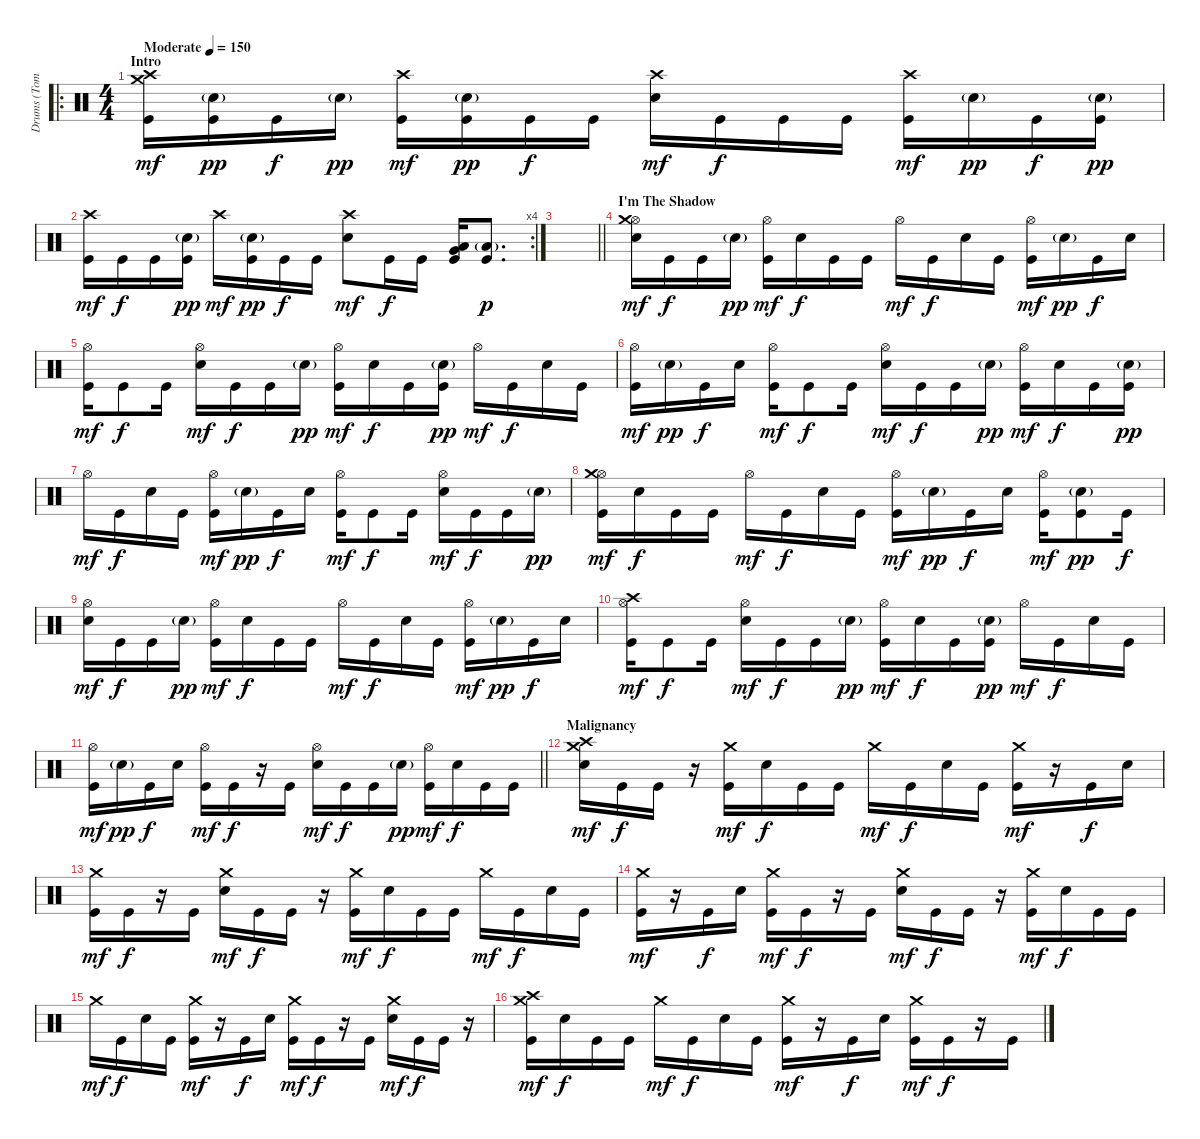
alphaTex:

\track ("Drums (Tomas Haake)" "Drums (Tom") {instrument percussion}
\staff {score}
\articulation defaults
\ro
\ts (4 4)
\section ("" "Intro")
\tempo (150 "Moderate")
\clef neutral
\ks c
("Crash high (hit)" "Crash medium (hit)" "Kick (hit)").16{dy mf} ("Electric Snare (hit)"{g} "Kick (hit)").16{dy pp} "Kick (hit)".16{dy f} "Electric Snare (hit)"{g}.16{dy pp} ("Crash high (hit)" "Kick (hit)").16{dy mf} ("Electric Snare (hit)"{g} "Kick (hit)").16{dy pp} "Kick (hit)".16{dy f} "Kick (hit)".16 ("Crash high (hit)" "Electric Snare (hit)").16{dy mf} "Kick (hit)".16{dy f} "Kick (hit)".16 "Kick (hit)".16 ("Crash high (hit)" "Kick (hit)").16{dy mf} "Electric Snare (hit)"{g}.16{dy pp} "Kick (hit)".16{dy f} ("Electric Snare (hit)"{g} "Kick (hit)").16{dy pp} |
\rc 4
("Crash high (hit)" "Kick (hit)").16{dy mf} "Kick (hit)".16{dy f} "Kick (hit)".16 ("Electric Snare (hit)"{g} "Kick (hit)").16{dy pp} "Crash high (hit)".16{dy mf} ("Electric Snare (hit)"{g} "Kick (hit)").16{dy pp} "Kick (hit)".16{dy f} "Kick (hit)".16 ("Crash high (hit)" "Electric Snare (hit)").8{dy mf} "Kick (hit)".16{dy f} "Kick (hit)".16 ("Very Low Tom (hit)" "Low Floor Tom (hit)" "Kick (hit)").16 ("Low Floor Tom (hit)"{g} "Kick (hit)").8{d dy p} |
\barLineRight lightlight
|
\section ("" "I'm The Shadow")
("Hi-Hat (open)" "Crash medium (hit)" "Electric Snare (hit)").16{dy mf} "Kick (hit)".16{dy f} "Kick (hit)".16 "Electric Snare (hit)"{g}.16{dy pp} ("Hi-Hat (open)" "Kick (hit)").16{dy mf} "Electric Snare (hit)".16{dy f} "Kick (hit)".16 "Kick (hit)".16 "Hi-Hat (open)".16{dy mf} "Kick (hit)".16{dy f} "Electric Snare (hit)".16 "Kick (hit)".16 ("Hi-Hat (open)" "Kick (hit)").16{dy mf} "Electric Snare (hit)"{g}.16{dy pp} "Kick (hit)".16{dy f} "Electric Snare (hit)".16 |
("Hi-Hat (open)" "Kick (hit)").16{dy mf} "Kick (hit)".8{dy f} "Kick (hit)".16 ("Hi-Hat (open)" "Electric Snare (hit)").16{dy mf} "Kick (hit)".16{dy f} "Kick (hit)".16 "Electric Snare (hit)"{g}.16{dy pp} ("Hi-Hat (open)" "Kick (hit)").16{dy mf} "Electric Snare (hit)".16{dy f} "Kick (hit)".16 ("Electric Snare (hit)"{g} "Kick (hit)").16{dy pp} "Hi-Hat (open)".16{dy mf} "Kick (hit)".16{dy f} "Electric Snare (hit)".16 "Kick (hit)".16 |
("Hi-Hat (open)" "Kick (hit)").16{dy mf} "Electric Snare (hit)"{g}.16{dy pp} "Kick (hit)".16{dy f} "Electric Snare (hit)".16 ("Hi-Hat (open)" "Kick (hit)").16{dy mf} "Kick (hit)".8{dy f} "Kick (hit)".16 ("Hi-Hat (open)" "Electric Snare (hit)").16{dy mf} "Kick (hit)".16{dy f} "Kick (hit)".16 "Electric Snare (hit)"{g}.16{dy pp} ("Hi-Hat (open)" "Kick (hit)").16{dy mf} "Electric Snare (hit)".16{dy f} "Kick (hit)".16 ("Electric Snare (hit)"{g} "Kick (hit)").16{dy pp} |
"Hi-Hat (open)".16{dy mf} "Kick (hit)".16{dy f} "Electric Snare (hit)".16 "Kick (hit)".16 ("Hi-Hat (open)" "Kick (hit)").16{dy mf} "Electric Snare (hit)"{g}.16{dy pp} "Kick (hit)".16{dy f} "Electric Snare (hit)".16 ("Hi-Hat (open)" "Kick (hit)").16{dy mf} "Kick (hit)".8{dy f} "Kick (hit)".16 ("Hi-Hat (open)" "Electric Snare (hit)").16{dy mf} "Kick (hit)".16{dy f} "Kick (hit)".16 "Electric Snare (hit)"{g}.16{dy pp} |
("Hi-Hat (open)" "Crash medium (hit)" "Kick (hit)").16{dy mf} "Electric Snare (hit)".16{dy f} "Kick (hit)".16 "Kick (hit)".16 "Hi-Hat (open)".16{dy mf} "Kick (hit)".16{dy f} "Electric Snare (hit)".16 "Kick (hit)".16 ("Hi-Hat (open)" "Kick (hit)").16{dy mf} "Electric Snare (hit)"{g}.16{dy pp} "Kick (hit)".16{dy f} "Electric Snare (hit)".16 ("Hi-Hat (open)" "Kick (hit)").16{dy mf} ("Electric Snare (hit)"{g} "Kick (hit)").8{dy pp} "Kick (hit)".16{dy f} |
("Hi-Hat (open)" "Electric Snare (hit)").16{dy mf} "Kick (hit)".16{dy f} "Kick (hit)".16 "Electric Snare (hit)"{g}.16{dy pp} ("Hi-Hat (open)" "Kick (hit)").16{dy mf} "Electric Snare (hit)".16{dy f} "Kick (hit)".16 "Kick (hit)".16 "Hi-Hat (open)".16{dy mf} "Kick (hit)".16{dy f} "Electric Snare (hit)".16 "Kick (hit)".16 ("Hi-Hat (open)" "Kick (hit)").16{dy mf} "Electric Snare (hit)"{g}.16{dy pp} "Kick (hit)".16{dy f} "Electric Snare (hit)".16 |
("Hi-Hat (open)" "Crash high (hit)" "Kick (hit)").16{dy mf} "Kick (hit)".8{dy f} "Kick (hit)".16 ("Hi-Hat (open)" "Electric Snare (hit)").16{dy mf} "Kick (hit)".16{dy f} "Kick (hit)".16 "Electric Snare (hit)"{g}.16{dy pp} ("Hi-Hat (open)" "Kick (hit)").16{dy mf} "Electric Snare (hit)".16{dy f} "Kick (hit)".16 ("Electric Snare (hit)"{g} "Kick (hit)").16{dy pp} "Hi-Hat (open)".16{dy mf} "Kick (hit)".16{dy f} "Electric Snare (hit)".16 "Kick (hit)".16 |
\barLineRight lightlight
("Hi-Hat (open)" "Kick (hit)").16{dy mf} "Electric Snare (hit)"{g}.16{dy pp} "Kick (hit)".16{dy f} "Electric Snare (hit)".16 ("Hi-Hat (open)" "Kick (hit)").16{dy mf} "Kick (hit)".16{dy f} r.16 "Kick (hit)".16 ("Hi-Hat (open)" "Electric Snare (hit)").16{dy mf} "Kick (hit)".16{dy f} "Kick (hit)".16 "Electric Snare (hit)"{g}.16{dy pp} ("Hi-Hat (open)" "Kick (hit)").16{dy mf} "Electric Snare (hit)".16{dy f} "Kick (hit)".16 "Kick (hit)".16 |
\section ("" "Malignancy")
("Crash medium (hit)" "Crash high (hit)" "Electric Snare (hit)").16{dy mf} "Kick (hit)".16{dy f} "Kick (hit)".16 r.16 ("Crash medium (hit)" "Kick (hit)").16{dy mf} "Electric Snare (hit)".16{dy f} "Kick (hit)".16 "Kick (hit)".16 "Crash medium (hit)".16{dy mf} "Kick (hit)".16{dy f} "Electric Snare (hit)".16 "Kick (hit)".16 ("Crash medium (hit)" "Kick (hit)").16{dy mf} r.16 "Kick (hit)".16{dy f} "Electric Snare (hit)".16 |
("Crash medium (hit)" "Kick (hit)").16{dy mf} "Kick (hit)".16{dy f} r.16 "Kick (hit)".16 ("Crash medium (hit)" "Electric Snare (hit)").16{dy mf} "Kick (hit)".16{dy f} "Kick (hit)".16 r.16 ("Crash medium (hit)" "Kick (hit)").16{dy mf} "Electric Snare (hit)".16{dy f} "Kick (hit)".16 "Kick (hit)".16 "Crash medium (hit)".16{dy mf} "Kick (hit)".16{dy f} "Electric Snare (hit)".16 "Kick (hit)".16 |
("Crash medium (hit)" "Kick (hit)").16{dy mf} r.16 "Kick (hit)".16{dy f} "Electric Snare (hit)".16 ("Crash medium (hit)" "Kick (hit)").16{dy mf} "Kick (hit)".16{dy f} r.16 "Kick (hit)".16 ("Crash medium (hit)" "Electric Snare (hit)").16{dy mf} "Kick (hit)".16{dy f} "Kick (hit)".16 r.16 ("Crash medium (hit)" "Kick (hit)").16{dy mf} "Electric Snare (hit)".16{dy f} "Kick (hit)".16 "Kick (hit)".16 |
"Crash medium (hit)".16{dy mf} "Kick (hit)".16{dy f} "Electric Snare (hit)".16 "Kick (hit)".16 ("Crash medium (hit)" "Kick (hit)").16{dy mf} r.16 "Kick (hit)".16{dy f} "Electric Snare (hit)".16 ("Crash medium (hit)" "Kick (hit)").16{dy mf} "Kick (hit)".16{dy f} r.16 "Kick (hit)".16 ("Crash medium (hit)" "Electric Snare (hit)").16{dy mf} "Kick (hit)".16{dy f} "Kick (hit)".16 r.16 |
("Crash medium (hit)" "Crash high (hit)" "Kick (hit)").16{dy mf} "Electric Snare (hit)".16{dy f} "Kick (hit)".16 "Kick (hit)".16 "Crash medium (hit)".16{dy mf} "Kick (hit)".16{dy f} "Electric Snare (hit)".16 "Kick (hit)".16 ("Crash medium (hit)" "Kick (hit)").16{dy mf} r.16 "Kick (hit)".16{dy f} "Electric Snare (hit)".16 ("Crash medium (hit)" "Kick (hit)").16{dy mf} "Kick (hit)".16{dy f} r.16 "Kick (hit)".16
